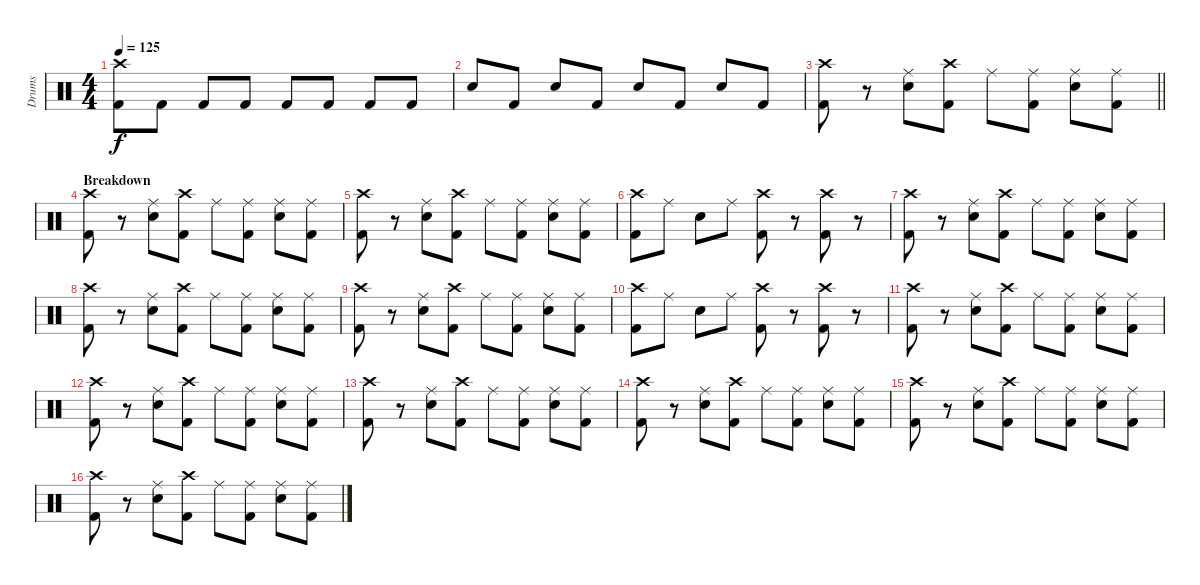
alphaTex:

\track ("Drums" "Drums") {instrument percussion}
\staff {score}
\articulation defaults
\ts (4 4)
\tempo 125
\clef neutral
\ks c
("Crash high (hit)" "Kick (hit) 2").8{dy f} "Kick (hit) 2".8 "Kick (hit) 2".8 "Kick (hit) 2".8 "Kick (hit) 2".8 "Kick (hit) 2".8 "Kick (hit) 2".8 "Kick (hit) 2".8 |
"Snare (hit) 2".8 "Kick (hit) 2".8 "Snare (hit) 2".8 "Kick (hit) 2".8 "Snare (hit) 2".8 "Kick (hit) 2".8 "Snare (hit) 2".8 "Kick (hit) 2".8 |
\barLineRight lightlight
("Crash high (hit)" "Kick (hit) 2").8 r.8 ("Ride (middle)" "Snare (hit) 2").8 ("Crash high (hit)" "Kick (hit) 2").8 "Ride (middle)".8 ("Ride (middle)" "Kick (hit) 2").8 ("Ride (middle)" "Snare (hit) 2").8 ("Ride (middle)" "Kick (hit) 2").8 |
\section ("" "Breakdown")
("Crash high (hit)" "Kick (hit) 2").8 r.8 ("Ride (middle)" "Snare (hit) 2").8 ("Crash high (hit)" "Kick (hit) 2").8 "Ride (middle)".8 ("Ride (middle)" "Kick (hit) 2").8 ("Ride (middle)" "Snare (hit) 2").8 ("Ride (middle)" "Kick (hit) 2").8 |
("Crash high (hit)" "Kick (hit) 2").8 r.8 ("Ride (middle)" "Snare (hit) 2").8 ("Crash high (hit)" "Kick (hit) 2").8 "Ride (middle)".8 ("Ride (middle)" "Kick (hit) 2").8 ("Ride (middle)" "Snare (hit) 2").8 ("Ride (middle)" "Kick (hit) 2").8 |
("Crash high (hit)" "Kick (hit) 2").8 "Ride (middle)".8 "Snare (hit) 2".8 "Ride (middle)".8 ("Crash high (hit)" "Kick (hit) 2").8 r.8 ("Crash high (hit)" "Kick (hit) 2").8 r.8 |
("Crash high (hit)" "Kick (hit) 2").8 r.8 ("Ride (middle)" "Snare (hit) 2").8 ("Crash high (hit)" "Kick (hit) 2").8 "Ride (middle)".8 ("Ride (middle)" "Kick (hit) 2").8 ("Ride (middle)" "Snare (hit) 2").8 ("Ride (middle)" "Kick (hit) 2").8 |
("Crash high (hit)" "Kick (hit) 2").8 r.8 ("Ride (middle)" "Snare (hit) 2").8 ("Crash high (hit)" "Kick (hit) 2").8 "Ride (middle)".8 ("Ride (middle)" "Kick (hit) 2").8 ("Ride (middle)" "Snare (hit) 2").8 ("Ride (middle)" "Kick (hit) 2").8 |
("Crash high (hit)" "Kick (hit) 2").8 r.8 ("Ride (middle)" "Snare (hit) 2").8 ("Crash high (hit)" "Kick (hit) 2").8 "Ride (middle)".8 ("Ride (middle)" "Kick (hit) 2").8 ("Ride (middle)" "Snare (hit) 2").8 ("Ride (middle)" "Kick (hit) 2").8 |
("Crash high (hit)" "Kick (hit) 2").8 "Ride (middle)".8 "Snare (hit) 2".8 "Ride (middle)".8 ("Crash high (hit)" "Kick (hit) 2").8 r.8 ("Crash high (hit)" "Kick (hit) 2").8 r.8 |
("Crash high (hit)" "Kick (hit) 2").8 r.8 ("Ride (middle)" "Snare (hit) 2").8 ("Crash high (hit)" "Kick (hit) 2").8 "Ride (middle)".8 ("Ride (middle)" "Kick (hit) 2").8 ("Ride (middle)" "Snare (hit) 2").8 ("Ride (middle)" "Kick (hit) 2").8 |
("Crash high (hit)" "Kick (hit) 2").8 r.8 ("Ride (middle)" "Snare (hit) 2").8 ("Crash high (hit)" "Kick (hit) 2").8 "Ride (middle)".8 ("Ride (middle)" "Kick (hit) 2").8 ("Ride (middle)" "Snare (hit) 2").8 ("Ride (middle)" "Kick (hit) 2").8 |
("Crash high (hit)" "Kick (hit) 2").8 r.8 ("Ride (middle)" "Snare (hit) 2").8 ("Crash high (hit)" "Kick (hit) 2").8 "Ride (middle)".8 ("Ride (middle)" "Kick (hit) 2").8 ("Ride (middle)" "Snare (hit) 2").8 ("Ride (middle)" "Kick (hit) 2").8 |
("Crash high (hit)" "Kick (hit) 2").8 r.8 ("Ride (middle)" "Snare (hit) 2").8 ("Crash high (hit)" "Kick (hit) 2").8 "Ride (middle)".8 ("Ride (middle)" "Kick (hit) 2").8 ("Ride (middle)" "Snare (hit) 2").8 ("Ride (middle)" "Kick (hit) 2").8 |
("Crash high (hit)" "Kick (hit) 2").8 r.8 ("Ride (middle)" "Snare (hit) 2").8 ("Crash high (hit)" "Kick (hit) 2").8 "Ride (middle)".8 ("Ride (middle)" "Kick (hit) 2").8 ("Ride (middle)" "Snare (hit) 2").8 ("Ride (middle)" "Kick (hit) 2").8 |
("Crash high (hit)" "Kick (hit) 2").8 r.8 ("Ride (middle)" "Snare (hit) 2").8 ("Crash high (hit)" "Kick (hit) 2").8 "Ride (middle)".8 ("Ride (middle)" "Kick (hit) 2").8 ("Ride (middle)" "Snare (hit) 2").8 ("Ride (middle)" "Kick (hit) 2").8
